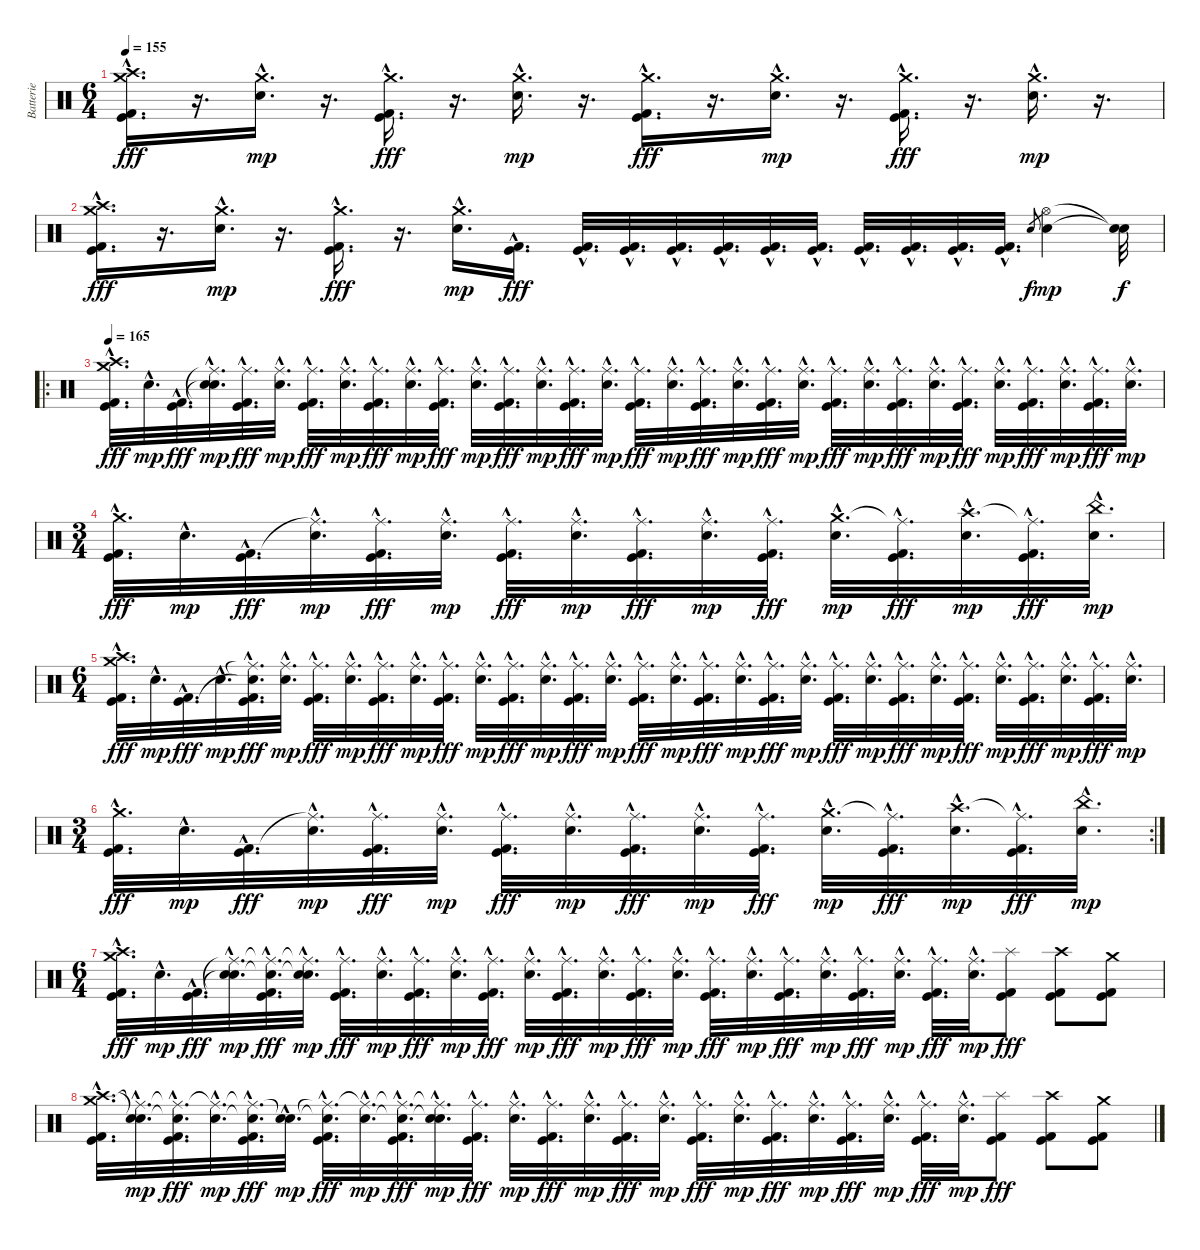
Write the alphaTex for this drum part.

\track ("Batterie" "Batterie") {instrument percussion}
\staff {score}
\articulation defaults
\ts (6 4)
\tempo 155
\clef neutral
\ks c
("Crash medium (hit)"{hac} "Crash high (hit)"{hac} "Kick (hit) 2"{hac} "Kick (hit)"{hac}).16{d dy fff} r.16{d} ("Crash medium (hit)"{hac} "Electric Snare (hit)"{hac}).16{d dy mp} r.16{d} ("Crash medium (hit)"{hac} "Kick (hit) 2"{hac} "Kick (hit)"{hac}).16{d dy fff} r.16{d} ("Crash medium (hit)"{hac} "Electric Snare (hit)"{hac}).16{d dy mp} r.16{d} ("Crash medium (hit)"{hac} "Kick (hit) 2"{hac} "Kick (hit)"{hac}).16{d dy fff} r.16{d} ("Crash medium (hit)"{hac} "Electric Snare (hit)"{hac}).16{d dy mp} r.16{d} ("Crash medium (hit)"{hac} "Kick (hit) 2"{hac} "Kick (hit)"{hac}).16{d dy fff} r.16{d} ("Crash medium (hit)"{hac} "Electric Snare (hit)"{hac}).16{d dy mp} r.16{d} |
("Crash medium (hit)"{hac} "Crash high (hit)"{hac} "Kick (hit) 2"{hac} "Kick (hit)"{hac}).16{d dy fff} r.16{d} ("Crash medium (hit)"{hac} "Electric Snare (hit)"{hac}).16{d dy mp} r.16{d} ("Crash medium (hit)"{hac} "Kick (hit) 2"{hac} "Kick (hit)"{hac}).16{d dy fff} r.16{d} ("Crash medium (hit)"{hac} "Electric Snare (hit)"{hac}).16{d dy mp} ("Kick (hit)"{hac} "Kick (hit) 2"{hac}).16{d dy fff} ("Kick (hit) 2"{hac} "Kick (hit)"{hac}).32{d} ("Kick (hit) 2"{hac} "Kick (hit)"{hac}).32{d} ("Kick (hit) 2"{hac} "Kick (hit)"{hac}).32{d} ("Kick (hit) 2"{hac} "Kick (hit)"{hac}).32{d} ("Kick (hit) 2"{hac} "Kick (hit)"{hac}).32{d} ("Kick (hit) 2"{hac} "Kick (hit)"{hac}).32{d} ("Kick (hit) 2"{hac} "Kick (hit)"{hac}).32{d} ("Kick (hit) 2"{hac} "Kick (hit)"{hac}).32{d} ("Kick (hit) 2"{hac} "Kick (hit)"{hac}).32{d} ("Kick (hit) 2"{hac} "Kick (hit)"{hac}).32{d} "Electric Snare (hit)".8{gr dy f} ("Hi-Hat (open)" "Electric Snare (hit)").4{dy mp} ("Snare (hit)"{t} "Snare (hit)"{t}).32{dy f} |
\ro
\tempo 165
("Crash medium (hit)"{hac} "Crash high (hit)"{hac} "Kick (hit) 2"{hac} "Kick (hit)"{hac}).32{d dy fff} "Electric Snare (hit)"{hac}.32{d dy mp} ("Kick (hit) 2"{hac} "Kick (hit)"{hac}).32{d dy fff} ("Ride (middle)"{hac t} "Snare (hit)"{hac t} "Electric Snare (hit)"{hac}).32{d dy mp} ("Ride (middle)"{hac} "Kick (hit) 2"{hac} "Kick (hit)"{hac}).32{d dy fff} ("Ride (middle)"{hac} "Electric Snare (hit)"{hac}).32{d dy mp} ("Ride (middle)"{hac} "Kick (hit) 2"{hac} "Kick (hit)"{hac}).32{d dy fff} ("Ride (middle)"{hac} "Electric Snare (hit)"{hac}).32{d dy mp} ("Ride (middle)"{hac} "Kick (hit) 2"{hac} "Kick (hit)"{hac}).32{d dy fff} ("Ride (middle)"{hac} "Electric Snare (hit)"{hac}).32{d dy mp} ("Ride (middle)"{hac} "Kick (hit) 2"{hac} "Kick (hit)"{hac}).32{d dy fff} ("Ride (middle)"{hac} "Electric Snare (hit)"{hac}).32{d dy mp} ("Ride (middle)"{hac} "Kick (hit) 2"{hac} "Kick (hit)"{hac}).32{d dy fff} ("Ride (middle)"{hac} "Electric Snare (hit)"{hac}).32{d dy mp} ("Ride (middle)"{hac} "Kick (hit) 2"{hac} "Kick (hit)"{hac}).32{d dy fff} ("Ride (middle)"{hac} "Electric Snare (hit)"{hac}).32{d dy mp} ("Ride (middle)"{hac} "Kick (hit) 2"{hac} "Kick (hit)"{hac}).32{d dy fff} ("Ride (middle)"{hac} "Electric Snare (hit)"{hac}).32{d dy mp} ("Ride (middle)"{hac} "Kick (hit) 2"{hac} "Kick (hit)"{hac}).32{d dy fff} ("Ride (middle)"{hac} "Electric Snare (hit)"{hac}).32{d dy mp} ("Ride (middle)"{hac} "Kick (hit) 2"{hac} "Kick (hit)"{hac}).32{d dy fff} ("Ride (middle)"{hac} "Electric Snare (hit)"{hac}).32{d dy mp} ("Ride (middle)"{hac} "Kick (hit) 2"{hac} "Kick (hit)"{hac}).32{d dy fff} ("Ride (middle)"{hac} "Electric Snare (hit)"{hac}).32{d dy mp} ("Ride (middle)"{hac} "Kick (hit) 2"{hac} "Kick (hit)"{hac}).32{d dy fff} ("Ride (middle)"{hac} "Electric Snare (hit)"{hac}).32{d dy mp} ("Ride (middle)"{hac} "Kick (hit) 2"{hac} "Kick (hit)"{hac}).32{d dy fff} ("Ride (middle)"{hac} "Electric Snare (hit)"{hac}).32{d dy mp} ("Ride (middle)"{hac} "Kick (hit) 2"{hac} "Kick (hit)"{hac}).32{d dy fff} ("Ride (middle)"{hac} "Electric Snare (hit)"{hac}).32{d dy mp} ("Ride (middle)"{hac} "Kick (hit) 2"{hac} "Kick (hit)"{hac}).32{d dy fff} ("Ride (middle)"{hac} "Electric Snare (hit)"{hac}).32{d dy mp} |
\ts (3 4)
("Crash medium (hit)"{hac} "Kick (hit) 2"{hac} "Kick (hit)"{hac}).32{d dy fff} "Electric Snare (hit)"{hac}.32{d dy mp} ("Kick (hit) 2"{hac} "Kick (hit)"{hac}).32{d dy fff} ("Ride (middle)"{hac t} "Electric Snare (hit)"{hac}).32{d dy mp} ("Ride (middle)"{hac} "Kick (hit) 2"{hac} "Kick (hit)"{hac}).32{d dy fff} ("Ride (middle)"{hac} "Electric Snare (hit)"{hac}).32{d dy mp} ("Ride (middle)"{hac} "Kick (hit) 2"{hac} "Kick (hit)"{hac}).32{d dy fff} ("Ride (middle)"{hac} "Electric Snare (hit)"{hac}).32{d dy mp} ("Ride (middle)"{hac} "Kick (hit) 2"{hac} "Kick (hit)"{hac}).32{d dy fff} ("Ride (middle)"{hac} "Electric Snare (hit)"{hac}).32{d dy mp} ("Ride (middle)"{hac} "Kick (hit) 2"{hac} "Kick (hit)"{hac}).32{d dy fff} ("Crash medium (hit)"{hac} "Electric Snare (hit)"{hac}).32{d dy mp} ("Ride (middle)"{hac t} "Kick (hit) 2"{hac} "Kick (hit)"{hac}).32{d dy fff} ("Crash high (hit)"{hac} "Electric Snare (hit)"{hac}).32{d dy mp} ("Ride (middle)"{hac t} "Kick (hit) 2"{hac} "Kick (hit)"{hac}).32{d dy fff} ("China (hit)"{hac} "Electric Snare (hit)"{hac}).32{d dy mp} |
\ts (6 4)
("Crash medium (hit)"{hac} "Crash high (hit)"{hac} "Kick (hit) 2"{hac} "Kick (hit)"{hac}).32{d dy fff} "Electric Snare (hit)"{hac}.32{d dy mp} ("Kick (hit) 2"{hac} "Kick (hit)"{hac}).32{d dy fff} "Electric Snare (hit)"{hac}.32{d dy mp} ("Ride (middle)"{hac t} "Snare (hit)"{hac t} "Kick (hit) 2"{hac} "Kick (hit)"{hac}).32{d dy fff} ("Ride (middle)"{hac} "Electric Snare (hit)"{hac}).32{d dy mp} ("Ride (middle)"{hac} "Kick (hit) 2"{hac} "Kick (hit)"{hac}).32{d dy fff} ("Ride (middle)"{hac} "Electric Snare (hit)"{hac}).32{d dy mp} ("Ride (middle)"{hac} "Kick (hit) 2"{hac} "Kick (hit)"{hac}).32{d dy fff} ("Ride (middle)"{hac} "Electric Snare (hit)"{hac}).32{d dy mp} ("Ride (middle)"{hac} "Kick (hit) 2"{hac} "Kick (hit)"{hac}).32{d dy fff} ("Ride (middle)"{hac} "Electric Snare (hit)"{hac}).32{d dy mp} ("Ride (middle)"{hac} "Kick (hit) 2"{hac} "Kick (hit)"{hac}).32{d dy fff} ("Ride (middle)"{hac} "Electric Snare (hit)"{hac}).32{d dy mp} ("Ride (middle)"{hac} "Kick (hit) 2"{hac} "Kick (hit)"{hac}).32{d dy fff} ("Ride (middle)"{hac} "Electric Snare (hit)"{hac}).32{d dy mp} ("Ride (middle)"{hac} "Kick (hit) 2"{hac} "Kick (hit)"{hac}).32{d dy fff} ("Ride (middle)"{hac} "Electric Snare (hit)"{hac}).32{d dy mp} ("Ride (middle)"{hac} "Kick (hit) 2"{hac} "Kick (hit)"{hac}).32{d dy fff} ("Ride (middle)"{hac} "Electric Snare (hit)"{hac}).32{d dy mp} ("Ride (middle)"{hac} "Kick (hit) 2"{hac} "Kick (hit)"{hac}).32{d dy fff} ("Ride (middle)"{hac} "Electric Snare (hit)"{hac}).32{d dy mp} ("Ride (middle)"{hac} "Kick (hit) 2"{hac} "Kick (hit)"{hac}).32{d dy fff} ("Ride (middle)"{hac} "Electric Snare (hit)"{hac}).32{d dy mp} ("Ride (middle)"{hac} "Kick (hit) 2"{hac} "Kick (hit)"{hac}).32{d dy fff} ("Ride (middle)"{hac} "Electric Snare (hit)"{hac}).32{d dy mp} ("Ride (middle)"{hac} "Kick (hit) 2"{hac} "Kick (hit)"{hac}).32{d dy fff} ("Ride (middle)"{hac} "Electric Snare (hit)"{hac}).32{d dy mp} ("Ride (middle)"{hac} "Kick (hit) 2"{hac} "Kick (hit)"{hac}).32{d dy fff} ("Ride (middle)"{hac} "Electric Snare (hit)"{hac}).32{d dy mp} ("Ride (middle)"{hac} "Kick (hit) 2"{hac} "Kick (hit)"{hac}).32{d dy fff} ("Ride (middle)"{hac} "Electric Snare (hit)"{hac}).32{d dy mp} |
\rc 2
\ts (3 4)
("Crash medium (hit)"{hac} "Kick (hit) 2"{hac} "Kick (hit)"{hac}).32{d dy fff} "Electric Snare (hit)"{hac}.32{d dy mp} ("Kick (hit) 2"{hac} "Kick (hit)"{hac}).32{d dy fff} ("Ride (middle)"{hac t} "Electric Snare (hit)"{hac}).32{d dy mp} ("Ride (middle)"{hac} "Kick (hit) 2"{hac} "Kick (hit)"{hac}).32{d dy fff} ("Ride (middle)"{hac} "Electric Snare (hit)"{hac}).32{d dy mp} ("Ride (middle)"{hac} "Kick (hit) 2"{hac} "Kick (hit)"{hac}).32{d dy fff} ("Ride (middle)"{hac} "Electric Snare (hit)"{hac}).32{d dy mp} ("Ride (middle)"{hac} "Kick (hit) 2"{hac} "Kick (hit)"{hac}).32{d dy fff} ("Ride (middle)"{hac} "Electric Snare (hit)"{hac}).32{d dy mp} ("Ride (middle)"{hac} "Kick (hit) 2"{hac} "Kick (hit)"{hac}).32{d dy fff} ("Crash medium (hit)"{hac} "Electric Snare (hit)"{hac}).32{d dy mp} ("Ride (middle)"{hac t} "Kick (hit) 2"{hac} "Kick (hit)"{hac}).32{d dy fff} ("Crash high (hit)"{hac} "Electric Snare (hit)"{hac}).32{d dy mp} ("Ride (middle)"{hac t} "Kick (hit) 2"{hac} "Kick (hit)"{hac}).32{d dy fff} ("China (hit)"{hac} "Electric Snare (hit)"{hac}).32{d dy mp} |
\ts (6 4)
("Crash medium (hit)"{hac} "Crash high (hit)"{hac} "Kick (hit) 2"{hac} "Kick (hit)"{hac}).32{d dy fff} "Electric Snare (hit)"{hac}.32{d dy mp} ("Kick (hit) 2"{hac} "Kick (hit)"{hac}).32{d dy fff} ("Ride (middle)"{hac t} "Snare (hit)"{hac t} "Electric Snare (hit)"{hac}).32{d dy mp} ("Ride (middle)"{hac t} "Snare (hit)"{hac t} "Kick (hit) 2"{hac} "Kick (hit)"{hac}).32{d dy fff} ("Ride (middle)"{hac t} "Snare (hit)"{hac t} "Electric Snare (hit)"{hac}).32{d dy mp} ("Ride (middle)"{hac} "Kick (hit) 2"{hac} "Kick (hit)"{hac}).32{d dy fff} ("Ride (middle)"{hac} "Electric Snare (hit)"{hac}).32{d dy mp} ("Ride (middle)"{hac} "Kick (hit) 2"{hac} "Kick (hit)"{hac}).32{d dy fff} ("Ride (middle)"{hac} "Electric Snare (hit)"{hac}).32{d dy mp} ("Ride (middle)"{hac} "Kick (hit) 2"{hac} "Kick (hit)"{hac}).32{d dy fff} ("Ride (middle)"{hac} "Electric Snare (hit)"{hac}).32{d dy mp} ("Ride (middle)"{hac} "Kick (hit) 2"{hac} "Kick (hit)"{hac}).32{d dy fff} ("Ride (middle)"{hac} "Electric Snare (hit)"{hac}).32{d dy mp} ("Ride (middle)"{hac} "Kick (hit) 2"{hac} "Kick (hit)"{hac}).32{d dy fff} ("Ride (middle)"{hac} "Electric Snare (hit)"{hac}).32{d dy mp} ("Ride (middle)"{hac} "Kick (hit) 2"{hac} "Kick (hit)"{hac}).32{d dy fff} ("Ride (middle)"{hac} "Electric Snare (hit)"{hac}).32{d dy mp} ("Ride (middle)"{hac} "Kick (hit) 2"{hac} "Kick (hit)"{hac}).32{d dy fff} ("Ride (middle)"{hac} "Electric Snare (hit)"{hac}).32{d dy mp} ("Ride (middle)"{hac} "Kick (hit) 2"{hac} "Kick (hit)"{hac}).32{d dy fff} ("Ride (middle)"{hac} "Electric Snare (hit)"{hac}).32{d dy mp} ("Ride (middle)"{hac} "Kick (hit) 2"{hac} "Kick (hit)"{hac}).32{d dy fff} ("Ride (middle)"{hac} "Electric Snare (hit)"{hac}).32{d dy mp} ("Splash (hit)" "Kick (hit)" "Kick (hit) 2").8{dy fff} ("Crash high (hit)" "Kick (hit)" "Kick (hit) 2").8 ("Crash medium (hit)" "Kick (hit)" "Kick (hit) 2").8 |
("Crash medium (hit)"{hac} "Crash high (hit)"{hac} "Kick (hit) 2"{hac} "Kick (hit)"{hac}).32{d} ("Ride (middle)"{hac t} "Snare (hit)"{hac t} "Electric Snare (hit)"{hac}).32{d dy mp} ("Ride (middle)"{hac t} "Snare (hit)"{hac t} "Kick (hit) 2"{hac} "Kick (hit)"{hac}).32{d dy fff} ("Ride (middle)"{hac t} "Electric Snare (hit)"{hac}).32{d dy mp} ("Ride (middle)"{hac t} "Snare (hit)"{hac t} "Kick (hit) 2"{hac} "Kick (hit)"{hac}).32{d dy fff} ("Snare (hit)"{hac t} "Electric Snare (hit)"{hac}).32{d dy mp} ("Ride (middle)"{hac t} "Snare (hit)"{hac t} "Kick (hit) 2"{hac} "Kick (hit)"{hac}).32{d dy fff} ("Ride (middle)"{hac t} "Electric Snare (hit)"{hac}).32{d dy mp} ("Ride (middle)"{hac t} "Snare (hit)"{hac t} "Kick (hit) 2"{hac} "Kick (hit)"{hac}).32{d dy fff} ("Ride (middle)"{hac t} "Snare (hit)"{hac t} "Electric Snare (hit)"{hac}).32{d dy mp} ("Ride (middle)"{hac} "Kick (hit) 2"{hac} "Kick (hit)"{hac}).32{d dy fff} ("Ride (middle)"{hac} "Electric Snare (hit)"{hac}).32{d dy mp} ("Ride (middle)"{hac} "Kick (hit) 2"{hac} "Kick (hit)"{hac}).32{d dy fff} ("Ride (middle)"{hac} "Electric Snare (hit)"{hac}).32{d dy mp} ("Ride (middle)"{hac} "Kick (hit) 2"{hac} "Kick (hit)"{hac}).32{d dy fff} ("Ride (middle)"{hac} "Electric Snare (hit)"{hac}).32{d dy mp} ("Ride (middle)"{hac} "Kick (hit) 2"{hac} "Kick (hit)"{hac}).32{d dy fff} ("Ride (middle)"{hac} "Electric Snare (hit)"{hac}).32{d dy mp} ("Ride (middle)"{hac} "Kick (hit) 2"{hac} "Kick (hit)"{hac}).32{d dy fff} ("Ride (middle)"{hac} "Electric Snare (hit)"{hac}).32{d dy mp} ("Ride (middle)"{hac} "Kick (hit) 2"{hac} "Kick (hit)"{hac}).32{d dy fff} ("Ride (middle)"{hac} "Electric Snare (hit)"{hac}).32{d dy mp} ("Ride (middle)"{hac} "Kick (hit) 2"{hac} "Kick (hit)"{hac}).32{d dy fff} ("Ride (middle)"{hac} "Electric Snare (hit)"{hac}).32{d dy mp} ("Splash (hit)" "Kick (hit)" "Kick (hit) 2").8{dy fff} ("Crash high (hit)" "Kick (hit)" "Kick (hit) 2").8 ("Crash medium (hit)" "Kick (hit)" "Kick (hit) 2").8
